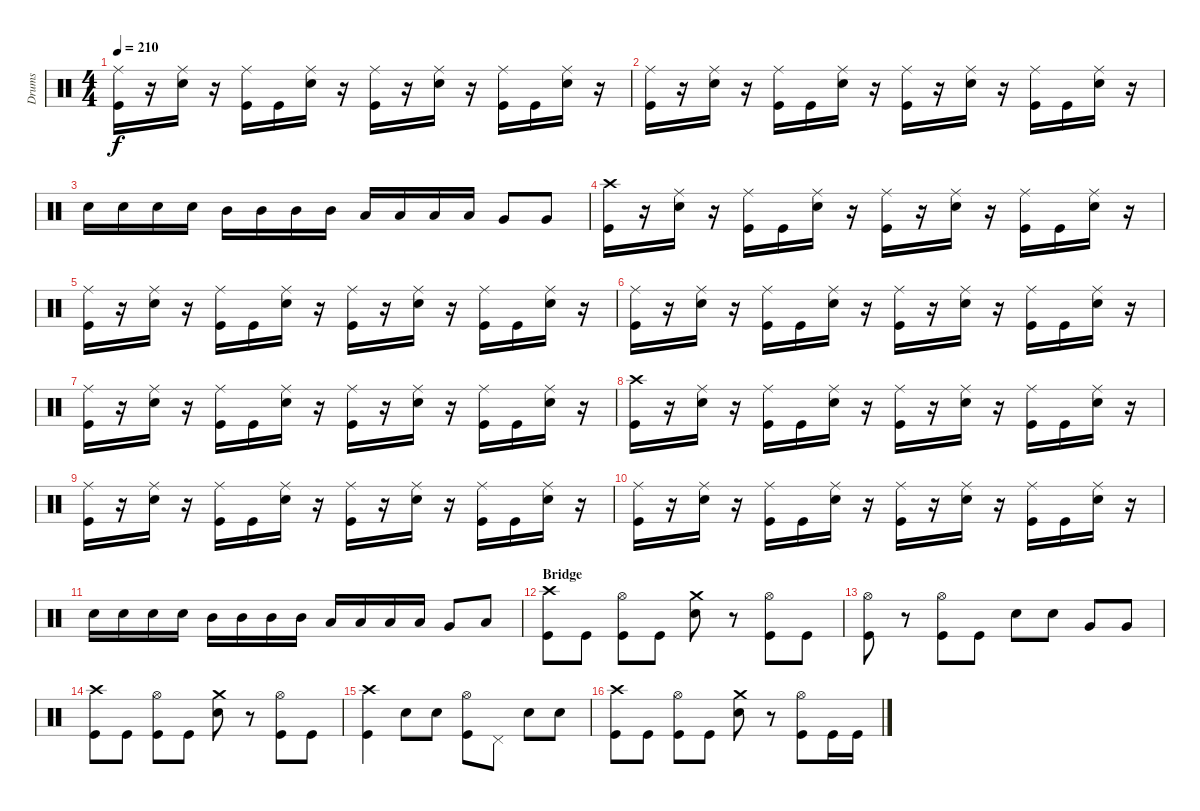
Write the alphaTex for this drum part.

\track ("Drums" "Drums") {instrument percussion}
\staff {score}
\articulation defaults
\ts (4 4)
\tempo 210
\clef neutral
\ks c
("Ride (middle)" "Kick (hit)").16{dy f} r.16 ("Ride (middle)" "Snare (hit) 2").16 r.16 ("Ride (middle)" "Kick (hit)").16 "Kick (hit)".16 ("Ride (middle)" "Snare (hit) 2").16 r.16 ("Ride (middle)" "Kick (hit)").16 r.16 ("Ride (middle)" "Snare (hit) 2").16 r.16 ("Ride (middle)" "Kick (hit)").16 "Kick (hit)".16 ("Ride (middle)" "Snare (hit) 2").16 r.16 |
("Ride (middle)" "Kick (hit)").16 r.16 ("Ride (middle)" "Snare (hit) 2").16 r.16 ("Ride (middle)" "Kick (hit)").16 "Kick (hit)".16 ("Ride (middle)" "Snare (hit) 2").16 r.16 ("Ride (middle)" "Kick (hit)").16 r.16 ("Ride (middle)" "Snare (hit) 2").16 r.16 ("Ride (middle)" "Kick (hit)").16 "Kick (hit)".16 ("Ride (middle)" "Snare (hit) 2").16 r.16 |
"Snare (hit) 2".16 "Snare (hit) 2".16 "Snare (hit) 2".16 "Snare (hit) 2".16 "Mid Tom (hit)".16 "Mid Tom (hit)".16 "Mid Tom (hit)".16 "Mid Tom (hit)".16 "Low Tom (hit)".16 "Low Tom (hit)".16 "Low Tom (hit)".16 "Low Tom (hit)".16 "Very Low Tom (hit)".8 "Very Low Tom (hit)".8 |
("Crash high (hit)" "Kick (hit)").16 r.16 ("Ride (middle)" "Snare (hit) 2").16 r.16 ("Ride (middle)" "Kick (hit)").16 "Kick (hit)".16 ("Ride (middle)" "Snare (hit) 2").16 r.16 ("Ride (middle)" "Kick (hit)").16 r.16 ("Ride (middle)" "Snare (hit) 2").16 r.16 ("Ride (middle)" "Kick (hit)").16 "Kick (hit)".16 ("Ride (middle)" "Snare (hit) 2").16 r.16 |
("Ride (middle)" "Kick (hit)").16 r.16 ("Ride (middle)" "Snare (hit) 2").16 r.16 ("Ride (middle)" "Kick (hit)").16 "Kick (hit)".16 ("Ride (middle)" "Snare (hit) 2").16 r.16 ("Ride (middle)" "Kick (hit)").16 r.16 ("Ride (middle)" "Snare (hit) 2").16 r.16 ("Ride (middle)" "Kick (hit)").16 "Kick (hit)".16 ("Ride (middle)" "Snare (hit) 2").16 r.16 |
("Ride (middle)" "Kick (hit)").16 r.16 ("Ride (middle)" "Snare (hit) 2").16 r.16 ("Ride (middle)" "Kick (hit)").16 "Kick (hit)".16 ("Ride (middle)" "Snare (hit) 2").16 r.16 ("Ride (middle)" "Kick (hit)").16 r.16 ("Ride (middle)" "Snare (hit) 2").16 r.16 ("Ride (middle)" "Kick (hit)").16 "Kick (hit)".16 ("Ride (middle)" "Snare (hit) 2").16 r.16 |
("Ride (middle)" "Kick (hit)").16 r.16 ("Ride (middle)" "Snare (hit) 2").16 r.16 ("Ride (middle)" "Kick (hit)").16 "Kick (hit)".16 ("Ride (middle)" "Snare (hit) 2").16 r.16 ("Ride (middle)" "Kick (hit)").16 r.16 ("Ride (middle)" "Snare (hit) 2").16 r.16 ("Ride (middle)" "Kick (hit)").16 "Kick (hit)".16 ("Ride (middle)" "Snare (hit) 2").16 r.16 |
("Crash high (hit)" "Kick (hit)").16 r.16 ("Ride (middle)" "Snare (hit) 2").16 r.16 ("Ride (middle)" "Kick (hit)").16 "Kick (hit)".16 ("Ride (middle)" "Snare (hit) 2").16 r.16 ("Ride (middle)" "Kick (hit)").16 r.16 ("Ride (middle)" "Snare (hit) 2").16 r.16 ("Ride (middle)" "Kick (hit)").16 "Kick (hit)".16 ("Ride (middle)" "Snare (hit) 2").16 r.16 |
("Ride (middle)" "Kick (hit)").16 r.16 ("Ride (middle)" "Snare (hit) 2").16 r.16 ("Ride (middle)" "Kick (hit)").16 "Kick (hit)".16 ("Ride (middle)" "Snare (hit) 2").16 r.16 ("Ride (middle)" "Kick (hit)").16 r.16 ("Ride (middle)" "Snare (hit) 2").16 r.16 ("Ride (middle)" "Kick (hit)").16 "Kick (hit)".16 ("Ride (middle)" "Snare (hit) 2").16 r.16 |
("Ride (middle)" "Kick (hit)").16 r.16 ("Ride (middle)" "Snare (hit) 2").16 r.16 ("Ride (middle)" "Kick (hit)").16 "Kick (hit)".16 ("Ride (middle)" "Snare (hit) 2").16 r.16 ("Ride (middle)" "Kick (hit)").16 r.16 ("Ride (middle)" "Snare (hit) 2").16 r.16 ("Ride (middle)" "Kick (hit)").16 "Kick (hit)".16 ("Ride (middle)" "Snare (hit) 2").16 r.16 |
"Snare (hit) 2".16 "Snare (hit) 2".16 "Snare (hit) 2".16 "Snare (hit) 2".16 "Mid Tom (hit)".16 "Mid Tom (hit)".16 "Mid Tom (hit)".16 "Mid Tom (hit)".16 "Low Tom (hit)".16 "Low Tom (hit)".16 "Low Tom (hit)".16 "Low Tom (hit)".16 "Very Low Tom (hit)".8 "Low Floor Tom (hit)".8 |
\section ("" "Bridge")
("Crash high (hit)" "Kick (hit)").8 "Kick (hit)".8 ("Hi-Hat (open)" "Kick (hit)").8 "Kick (hit)".8 ("Crash medium (hit)" "Snare (hit) 2").8 r.8 ("Hi-Hat (open)" "Kick (hit)").8 "Kick (hit)".8 |
("Hi-Hat (open)" "Kick (hit)").8 r.8 ("Hi-Hat (open)" "Kick (hit)").8 "Kick (hit)".8 "Snare (hit) 2".8 "Snare (hit) 2".8 "Very Low Tom (hit)".8 "Very Low Tom (hit)".8 |
("Crash high (hit)" "Kick (hit)").8 "Kick (hit)".8 ("Hi-Hat (open)" "Kick (hit)").8 "Kick (hit)".8 ("Crash medium (hit)" "Snare (hit) 2").8 r.8 ("Hi-Hat (open)" "Kick (hit)").8 "Kick (hit)".8 |
("Crash high (hit)" "Kick (hit)").4 "Snare (hit) 2".8 "Snare (hit) 2".8 ("Hi-Hat (open)" "Kick (hit)").8 "Pedal Hi-Hat (hit)".8 "Snare (hit) 2".8 "Snare (hit) 2".8 |
("Crash high (hit)" "Kick (hit)").8 "Kick (hit)".8 ("Hi-Hat (open)" "Kick (hit)").8 "Kick (hit)".8 ("Crash medium (hit)" "Snare (hit) 2").8 r.8 ("Hi-Hat (open)" "Kick (hit)").8 "Kick (hit)".16 "Kick (hit)".16
